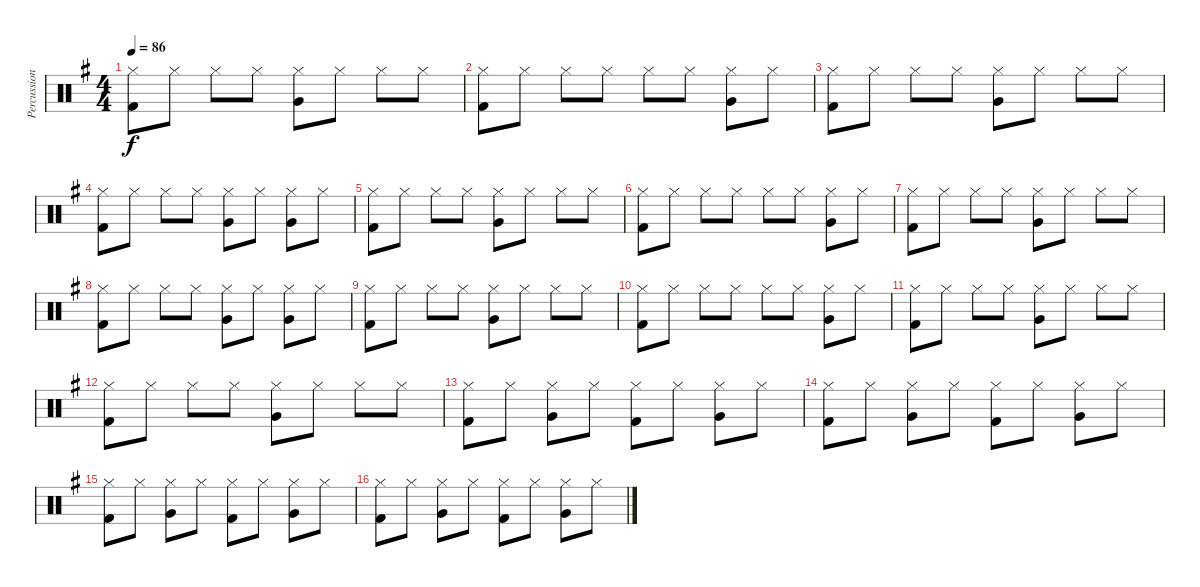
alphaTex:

\track ("Percussions" "Percussion") {instrument percussion}
\staff {score}
\articulation defaults
\ts (4 4)
\tempo 86
\clef neutral
\ks g
("Hi-Hat (closed)" "Kick (hit) 2").8{dy f} "Hi-Hat (closed)".8 "Hi-Hat (closed)".8 "Hi-Hat (closed)".8 ("Hi-Hat (closed)" "Very Low Tom (hit)").8 "Hi-Hat (closed)".8 "Hi-Hat (closed)".8 "Hi-Hat (closed)".8 |
("Hi-Hat (closed)" "Kick (hit) 2").8 "Hi-Hat (closed)".8 "Hi-Hat (closed)".8 "Hi-Hat (closed)".8 "Hi-Hat (closed)".8 "Hi-Hat (closed)".8 ("Hi-Hat (closed)" "Very Low Tom (hit)").8 "Hi-Hat (closed)".8 |
("Hi-Hat (closed)" "Kick (hit) 2").8 "Hi-Hat (closed)".8 "Hi-Hat (closed)".8 "Hi-Hat (closed)".8 ("Hi-Hat (closed)" "Very Low Tom (hit)").8 "Hi-Hat (closed)".8 "Hi-Hat (closed)".8 "Hi-Hat (closed)".8 |
("Hi-Hat (closed)" "Kick (hit) 2").8 "Hi-Hat (closed)".8 "Hi-Hat (closed)".8 "Hi-Hat (closed)".8 ("Hi-Hat (closed)" "Very Low Tom (hit)").8 "Hi-Hat (closed)".8 ("Hi-Hat (closed)" "Very Low Tom (hit)").8 "Hi-Hat (closed)".8 |
("Hi-Hat (closed)" "Kick (hit) 2").8 "Hi-Hat (closed)".8 "Hi-Hat (closed)".8 "Hi-Hat (closed)".8 ("Hi-Hat (closed)" "Very Low Tom (hit)").8 "Hi-Hat (closed)".8 "Hi-Hat (closed)".8 "Hi-Hat (closed)".8 |
("Hi-Hat (closed)" "Kick (hit) 2").8 "Hi-Hat (closed)".8 "Hi-Hat (closed)".8 "Hi-Hat (closed)".8 "Hi-Hat (closed)".8 "Hi-Hat (closed)".8 ("Hi-Hat (closed)" "Very Low Tom (hit)").8 "Hi-Hat (closed)".8 |
("Hi-Hat (closed)" "Kick (hit) 2").8 "Hi-Hat (closed)".8 "Hi-Hat (closed)".8 "Hi-Hat (closed)".8 ("Hi-Hat (closed)" "Very Low Tom (hit)").8 "Hi-Hat (closed)".8 "Hi-Hat (closed)".8 "Hi-Hat (closed)".8 |
("Hi-Hat (closed)" "Kick (hit) 2").8 "Hi-Hat (closed)".8 "Hi-Hat (closed)".8 "Hi-Hat (closed)".8 ("Hi-Hat (closed)" "Very Low Tom (hit)").8 "Hi-Hat (closed)".8 ("Hi-Hat (closed)" "Very Low Tom (hit)").8 "Hi-Hat (closed)".8 |
("Hi-Hat (closed)" "Kick (hit) 2").8 "Hi-Hat (closed)".8 "Hi-Hat (closed)".8 "Hi-Hat (closed)".8 ("Hi-Hat (closed)" "Very Low Tom (hit)").8 "Hi-Hat (closed)".8 "Hi-Hat (closed)".8 "Hi-Hat (closed)".8 |
("Hi-Hat (closed)" "Kick (hit) 2").8 "Hi-Hat (closed)".8 "Hi-Hat (closed)".8 "Hi-Hat (closed)".8 "Hi-Hat (closed)".8 "Hi-Hat (closed)".8 ("Hi-Hat (closed)" "Very Low Tom (hit)").8 "Hi-Hat (closed)".8 |
("Hi-Hat (closed)" "Kick (hit) 2").8 "Hi-Hat (closed)".8 "Hi-Hat (closed)".8 "Hi-Hat (closed)".8 ("Hi-Hat (closed)" "Very Low Tom (hit)").8 "Hi-Hat (closed)".8 "Hi-Hat (closed)".8 "Hi-Hat (closed)".8 |
("Hi-Hat (closed)" "Kick (hit) 2").8 "Hi-Hat (closed)".8 "Hi-Hat (closed)".8 "Hi-Hat (closed)".8 ("Hi-Hat (closed)" "Very Low Tom (hit)").8 "Hi-Hat (closed)".8 "Hi-Hat (closed)".8 "Hi-Hat (closed)".8 |
("Hi-Hat (closed)" "Kick (hit) 2").8 "Hi-Hat (closed)".8 ("Hi-Hat (closed)" "Very Low Tom (hit)").8 "Hi-Hat (closed)".8 ("Hi-Hat (closed)" "Kick (hit) 2").8 "Hi-Hat (closed)".8 ("Hi-Hat (closed)" "Very Low Tom (hit)").8 "Hi-Hat (closed)".8 |
("Hi-Hat (closed)" "Kick (hit) 2").8 "Hi-Hat (closed)".8 ("Hi-Hat (closed)" "Very Low Tom (hit)").8 "Hi-Hat (closed)".8 ("Hi-Hat (closed)" "Kick (hit) 2").8 "Hi-Hat (closed)".8 ("Hi-Hat (closed)" "Very Low Tom (hit)").8 "Hi-Hat (closed)".8 |
("Hi-Hat (closed)" "Kick (hit) 2").8 "Hi-Hat (closed)".8 ("Hi-Hat (closed)" "Very Low Tom (hit)").8 "Hi-Hat (closed)".8 ("Hi-Hat (closed)" "Kick (hit) 2").8 "Hi-Hat (closed)".8 ("Hi-Hat (closed)" "Very Low Tom (hit)").8 "Hi-Hat (closed)".8 |
("Hi-Hat (closed)" "Kick (hit) 2").8 "Hi-Hat (closed)".8 ("Hi-Hat (closed)" "Very Low Tom (hit)").8 "Hi-Hat (closed)".8 ("Hi-Hat (closed)" "Kick (hit) 2").8 "Hi-Hat (closed)".8 ("Hi-Hat (closed)" "Very Low Tom (hit)").8 "Hi-Hat (closed)".8
